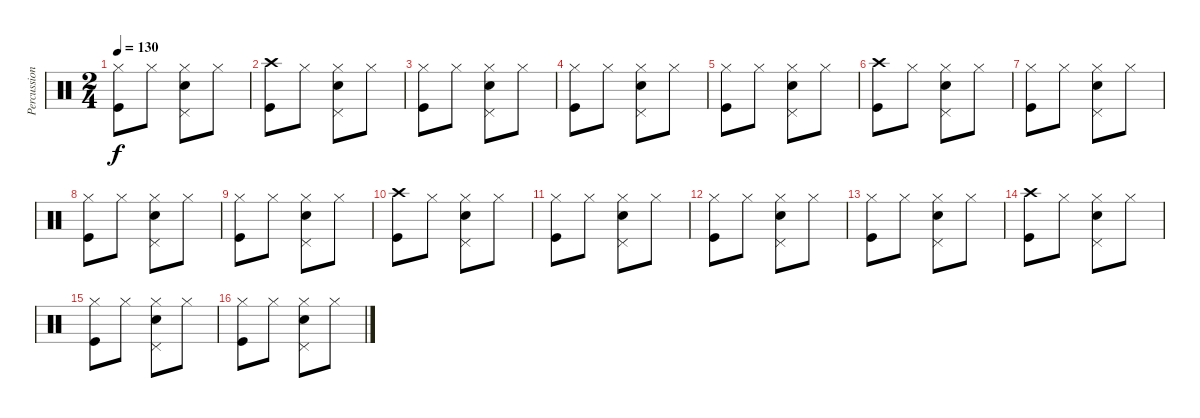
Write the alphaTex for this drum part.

\track ("Percussioni" "Percussion") {instrument percussion}
\staff {score}
\articulation defaults
\ts (2 4)
\tempo 130
\clef neutral
\ks c
("Hi-Hat (closed)" "Kick (hit)").8{dy f} "Hi-Hat (closed)".8 ("Hi-Hat (closed)" "Pedal Hi-Hat (hit)" "Snare (hit) 2").8 "Hi-Hat (closed)".8 |
("Crash high (hit)" "Kick (hit)").8 "Hi-Hat (closed)".8 ("Hi-Hat (closed)" "Pedal Hi-Hat (hit)" "Snare (hit) 2").8 "Hi-Hat (closed)".8 |
("Hi-Hat (closed)" "Kick (hit)").8 "Hi-Hat (closed)".8 ("Hi-Hat (closed)" "Pedal Hi-Hat (hit)" "Snare (hit) 2").8 "Hi-Hat (closed)".8 |
("Hi-Hat (closed)" "Kick (hit)").8 "Hi-Hat (closed)".8 ("Hi-Hat (closed)" "Pedal Hi-Hat (hit)" "Snare (hit) 2").8 "Hi-Hat (closed)".8 |
("Hi-Hat (closed)" "Kick (hit)").8 "Hi-Hat (closed)".8 ("Hi-Hat (closed)" "Pedal Hi-Hat (hit)" "Snare (hit) 2").8 "Hi-Hat (closed)".8 |
("Crash high (hit)" "Kick (hit)").8 "Hi-Hat (closed)".8 ("Hi-Hat (closed)" "Pedal Hi-Hat (hit)" "Snare (hit) 2").8 "Hi-Hat (closed)".8 |
("Hi-Hat (closed)" "Kick (hit)").8 "Hi-Hat (closed)".8 ("Hi-Hat (closed)" "Pedal Hi-Hat (hit)" "Snare (hit) 2").8 "Hi-Hat (closed)".8 |
("Hi-Hat (closed)" "Kick (hit)").8 "Hi-Hat (closed)".8 ("Hi-Hat (closed)" "Pedal Hi-Hat (hit)" "Snare (hit) 2").8 "Hi-Hat (closed)".8 |
("Hi-Hat (closed)" "Kick (hit)").8 "Hi-Hat (closed)".8 ("Hi-Hat (closed)" "Pedal Hi-Hat (hit)" "Snare (hit) 2").8 "Hi-Hat (closed)".8 |
("Crash high (hit)" "Kick (hit)").8 "Hi-Hat (closed)".8 ("Hi-Hat (closed)" "Pedal Hi-Hat (hit)" "Snare (hit) 2").8 "Hi-Hat (closed)".8 |
("Hi-Hat (closed)" "Kick (hit)").8 "Hi-Hat (closed)".8 ("Hi-Hat (closed)" "Pedal Hi-Hat (hit)" "Snare (hit) 2").8 "Hi-Hat (closed)".8 |
("Hi-Hat (closed)" "Kick (hit)").8 "Hi-Hat (closed)".8 ("Hi-Hat (closed)" "Pedal Hi-Hat (hit)" "Snare (hit) 2").8 "Hi-Hat (closed)".8 |
("Hi-Hat (closed)" "Kick (hit)").8 "Hi-Hat (closed)".8 ("Hi-Hat (closed)" "Pedal Hi-Hat (hit)" "Snare (hit) 2").8 "Hi-Hat (closed)".8 |
("Crash high (hit)" "Kick (hit)").8 "Hi-Hat (closed)".8 ("Hi-Hat (closed)" "Pedal Hi-Hat (hit)" "Snare (hit) 2").8 "Hi-Hat (closed)".8 |
("Hi-Hat (closed)" "Kick (hit)").8 "Hi-Hat (closed)".8 ("Hi-Hat (closed)" "Pedal Hi-Hat (hit)" "Snare (hit) 2").8 "Hi-Hat (closed)".8 |
("Hi-Hat (closed)" "Kick (hit)").8 "Hi-Hat (closed)".8 ("Hi-Hat (closed)" "Pedal Hi-Hat (hit)" "Snare (hit) 2").8 "Hi-Hat (closed)".8
